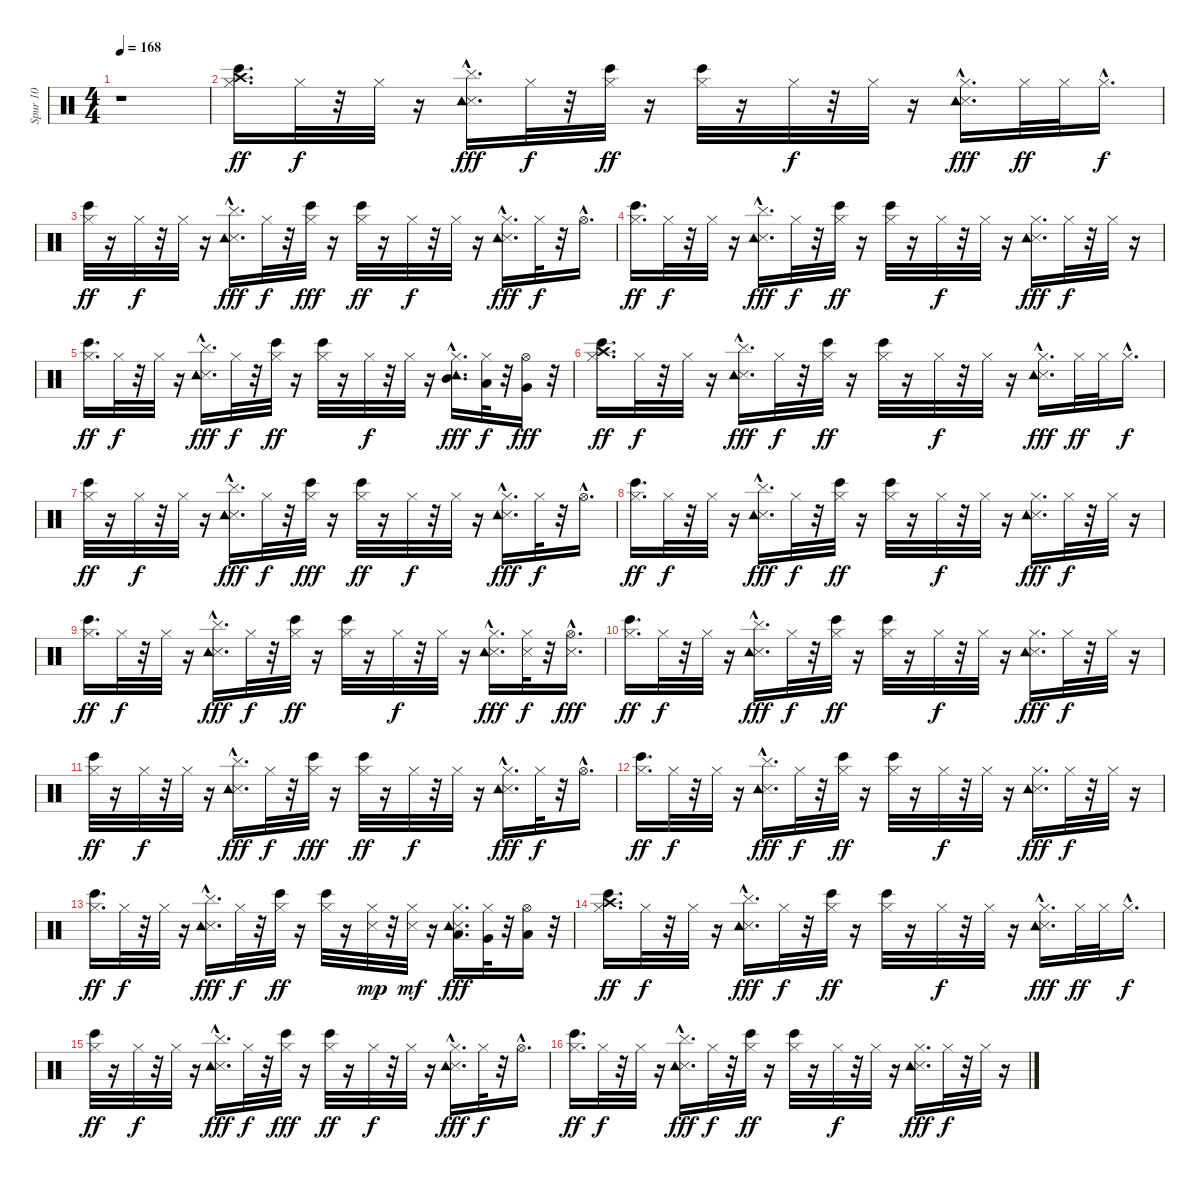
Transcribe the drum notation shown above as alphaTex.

\track ("Spur 10" "Spur 10") {instrument percussion}
\staff {score}
\articulation defaults
\ts (4 4)
\tempo 168
\clef neutral
\ks c
r.1{dy ff} |
("Crash high (hit)" "Hi-Hat (closed)" "Bongo High (hit)").16{d} "Hi-Hat (closed)".32{dy f} r.32 "Hi-Hat (closed)".32 r.16 ("Cymbal (hit)"{hac} "Metronome (hit)" "Tambourine (hit)").16{d dy fff} "Hi-Hat (closed)".32{dy f} r.32 ("Hi-Hat (closed)" "Bongo High (hit)").32{dy ff} r.16 ("Hi-Hat (closed)" "Bongo High (hit)").32 r.16 "Hi-Hat (closed)".32{dy f} r.32 "Hi-Hat (closed)".32 r.16 ("Hi-Hat (closed)"{hac} "Metronome (hit)" "Tambourine (hit)").16{d dy fff} "Hi-Hat (closed)".32{dy ff} "Hi-Hat (closed)".32 "Hi-Hat (closed)"{hac}.16{d dy f} |
("Hi-Hat (closed)" "Bongo High (hit)").32{dy ff} r.16 "Hi-Hat (closed)".32{dy f} r.32 "Hi-Hat (closed)".32 r.16 ("Cymbal (hit)"{hac} "Metronome (hit)" "Tambourine (hit)").16{d dy fff} "Hi-Hat (closed)".32{dy f} r.32 ("Hi-Hat (closed)" "Bongo High (hit)").32{dy fff} r.16 ("Hi-Hat (closed)" "Bongo High (hit)").32{dy ff} r.16 "Hi-Hat (closed)".32{dy f} r.32 "Hi-Hat (closed)".32 r.16 ("Hi-Hat (closed)" "Metronome (hit)"{hac} "Tambourine (hit)").16{d dy fff} "Hi-Hat (closed)".32{dy f} r.32 "Hi-Hat (open)"{hac}.16{d} |
("Hi-Hat (closed)" "Bongo High (hit)").16{d dy ff} "Hi-Hat (closed)".32{dy f} r.32 "Hi-Hat (closed)".32 r.16 ("Cymbal (hit)"{hac} "Metronome (hit)" "Tambourine (hit)").16{d dy fff} "Hi-Hat (closed)".32{dy f} r.32 ("Hi-Hat (closed)" "Bongo High (hit)").32{dy ff} r.16 ("Hi-Hat (closed)" "Bongo High (hit)").32 r.16 "Hi-Hat (closed)".32{dy f} r.32 "Hi-Hat (closed)".32 r.16 ("Hi-Hat (closed)" "Metronome (hit)" "Tambourine (hit)").16{d dy fff} "Hi-Hat (closed)".32{dy f} r.32 "Hi-Hat (closed)".32 r.16 |
("Hi-Hat (closed)" "Bongo High (hit)").16{d dy ff} "Hi-Hat (closed)".32{dy f} r.32 "Hi-Hat (closed)".32 r.16 ("Cymbal (hit)"{hac} "Metronome (hit)" "Tambourine (hit)").16{d dy fff} "Hi-Hat (closed)".32{dy f} r.32 ("Hi-Hat (closed)" "Bongo High (hit)").32{dy ff} r.16 ("Hi-Hat (closed)" "Bongo High (hit)").32 r.16 "Hi-Hat (closed)".32{dy f} r.32 "Hi-Hat (closed)".32 r.16 ("Hi-Hat (closed)" "Mid Tom (hit)"{hac} "Tambourine (hit)").16{d dy fff} ("Low Tom (hit)" "Hi-Hat (closed)").32{dy f} r.32 ("Very Low Tom (hit)" "Hi-Hat (open)").16{dy fff} r.32 |
("Crash high (hit)" "Hi-Hat (closed)" "Bongo High (hit)").16{d dy ff} "Hi-Hat (closed)".32{dy f} r.32 "Hi-Hat (closed)".32 r.16 ("Cymbal (hit)"{hac} "Metronome (hit)" "Tambourine (hit)").16{d dy fff} "Hi-Hat (closed)".32{dy f} r.32 ("Hi-Hat (closed)" "Bongo High (hit)").32{dy ff} r.16 ("Hi-Hat (closed)" "Bongo High (hit)").32 r.16 "Hi-Hat (closed)".32{dy f} r.32 "Hi-Hat (closed)".32 r.16 ("Hi-Hat (closed)"{hac} "Metronome (hit)" "Tambourine (hit)").16{d dy fff} "Hi-Hat (closed)".32{dy ff} "Hi-Hat (closed)".32 "Hi-Hat (closed)"{hac}.16{d dy f} |
("Hi-Hat (closed)" "Bongo High (hit)").32{dy ff} r.16 "Hi-Hat (closed)".32{dy f} r.32 "Hi-Hat (closed)".32 r.16 ("Cymbal (hit)"{hac} "Metronome (hit)" "Tambourine (hit)").16{d dy fff} "Hi-Hat (closed)".32{dy f} r.32 ("Hi-Hat (closed)" "Bongo High (hit)").32{dy fff} r.16 ("Hi-Hat (closed)" "Bongo High (hit)").32{dy ff} r.16 "Hi-Hat (closed)".32{dy f} r.32 "Hi-Hat (closed)".32 r.16 ("Hi-Hat (closed)" "Metronome (hit)"{hac} "Tambourine (hit)").16{d dy fff} "Hi-Hat (closed)".32{dy f} r.32 "Hi-Hat (open)"{hac}.16{d} |
("Hi-Hat (closed)" "Bongo High (hit)").16{d dy ff} "Hi-Hat (closed)".32{dy f} r.32 "Hi-Hat (closed)".32 r.16 ("Cymbal (hit)"{hac} "Metronome (hit)" "Tambourine (hit)").16{d dy fff} "Hi-Hat (closed)".32{dy f} r.32 ("Hi-Hat (closed)" "Bongo High (hit)").32{dy ff} r.16 ("Hi-Hat (closed)" "Bongo High (hit)").32 r.16 "Hi-Hat (closed)".32{dy f} r.32 "Hi-Hat (closed)".32 r.16 ("Hi-Hat (closed)" "Metronome (hit)" "Tambourine (hit)").16{d dy fff} "Hi-Hat (closed)".32{dy f} r.32 "Hi-Hat (closed)".32 r.16 |
("Hi-Hat (closed)" "Bongo High (hit)").16{d dy ff} "Hi-Hat (closed)".32{dy f} r.32 "Hi-Hat (closed)".32 r.16 ("Cymbal (hit)"{hac} "Metronome (hit)" "Tambourine (hit)").16{d dy fff} "Hi-Hat (closed)".32{dy f} r.32 ("Hi-Hat (closed)" "Bongo High (hit)").32{dy ff} r.16 ("Hi-Hat (closed)" "Bongo High (hit)").32 r.16 "Hi-Hat (closed)".32{dy f} r.32 "Hi-Hat (closed)".32 r.16 ("Hi-Hat (closed)" "Metronome (hit)"{hac} "Tambourine (hit)").16{d dy fff} ("Metronome (hit)" "Hi-Hat (closed)").32{dy f} r.32 ("Metronome (hit)"{hac} "Hi-Hat (open)"{hac}).16{d dy fff} |
("Hi-Hat (closed)" "Bongo High (hit)").16{d dy ff} "Hi-Hat (closed)".32{dy f} r.32 "Hi-Hat (closed)".32 r.16 ("Cymbal (hit)"{hac} "Metronome (hit)" "Tambourine (hit)").16{d dy fff} "Hi-Hat (closed)".32{dy f} r.32 ("Hi-Hat (closed)" "Bongo High (hit)").32{dy ff} r.16 ("Hi-Hat (closed)" "Bongo High (hit)").32 r.16 "Hi-Hat (closed)".32{dy f} r.32 "Hi-Hat (closed)".32 r.16 ("Hi-Hat (closed)" "Metronome (hit)" "Tambourine (hit)").16{d dy fff} "Hi-Hat (closed)".32{dy f} r.32 "Hi-Hat (closed)".32 r.16 |
("Hi-Hat (closed)" "Bongo High (hit)").32{dy ff} r.16 "Hi-Hat (closed)".32{dy f} r.32 "Hi-Hat (closed)".32 r.16 ("Cymbal (hit)"{hac} "Metronome (hit)" "Tambourine (hit)").16{d dy fff} "Hi-Hat (closed)".32{dy f} r.32 ("Hi-Hat (closed)" "Bongo High (hit)").32{dy fff} r.16 ("Hi-Hat (closed)" "Bongo High (hit)").32{dy ff} r.16 "Hi-Hat (closed)".32{dy f} r.32 "Hi-Hat (closed)".32 r.16 ("Hi-Hat (closed)" "Metronome (hit)"{hac} "Tambourine (hit)").16{d dy fff} "Hi-Hat (closed)".32{dy f} r.32 "Hi-Hat (open)"{hac}.16{d} |
("Hi-Hat (closed)" "Bongo High (hit)").16{d dy ff} "Hi-Hat (closed)".32{dy f} r.32 "Hi-Hat (closed)".32 r.16 ("Cymbal (hit)"{hac} "Metronome (hit)" "Tambourine (hit)").16{d dy fff} "Hi-Hat (closed)".32{dy f} r.32 ("Hi-Hat (closed)" "Bongo High (hit)").32{dy ff} r.16 ("Hi-Hat (closed)" "Bongo High (hit)").32 r.16 "Hi-Hat (closed)".32{dy f} r.32 "Hi-Hat (closed)".32 r.16 ("Hi-Hat (closed)" "Metronome (hit)" "Tambourine (hit)").16{d dy fff} "Hi-Hat (closed)".32{dy f} r.32 "Hi-Hat (closed)".32 r.16 |
("Hi-Hat (closed)" "Bongo High (hit)").16{d dy ff} "Hi-Hat (closed)".32{dy f} r.32 "Hi-Hat (closed)".32 r.16 ("Cymbal (hit)"{hac} "Metronome (hit)" "Tambourine (hit)").16{d dy fff} "Hi-Hat (closed)".32{dy f} r.32 ("Hi-Hat (closed)" "Bongo High (hit)").32{dy ff} r.16 ("Hi-Hat (closed)" "Bongo High (hit)").32 r.16 ("Metronome (hit)" "Hi-Hat (closed)").32{dy mp} r.32 ("Metronome (hit)" "Hi-Hat (closed)").32{dy mf} r.16 ("Metronome (hit)" "Hi-Hat (closed)" "Low Tom (hit)" "Tambourine (hit)").16{d dy fff} ("Very Low Tom (hit)" "Hi-Hat (closed)").32 r.32 ("Low Floor Tom (hit)" "Hi-Hat (open)").16 r.32 |
("Crash high (hit)" "Hi-Hat (closed)" "Bongo High (hit)").16{d dy ff} "Hi-Hat (closed)".32{dy f} r.32 "Hi-Hat (closed)".32 r.16 ("Cymbal (hit)"{hac} "Metronome (hit)" "Tambourine (hit)").16{d dy fff} "Hi-Hat (closed)".32{dy f} r.32 ("Hi-Hat (closed)" "Bongo High (hit)").32{dy ff} r.16 ("Hi-Hat (closed)" "Bongo High (hit)").32 r.16 "Hi-Hat (closed)".32{dy f} r.32 "Hi-Hat (closed)".32 r.16 ("Hi-Hat (closed)"{hac} "Metronome (hit)" "Tambourine (hit)").16{d dy fff} "Hi-Hat (closed)".32{dy ff} "Hi-Hat (closed)".32 "Hi-Hat (closed)"{hac}.16{d dy f} |
("Hi-Hat (closed)" "Bongo High (hit)").32{dy ff} r.16 "Hi-Hat (closed)".32{dy f} r.32 "Hi-Hat (closed)".32 r.16 ("Cymbal (hit)"{hac} "Metronome (hit)" "Tambourine (hit)").16{d dy fff} "Hi-Hat (closed)".32{dy f} r.32 ("Hi-Hat (closed)" "Bongo High (hit)").32{dy fff} r.16 ("Hi-Hat (closed)" "Bongo High (hit)").32{dy ff} r.16 "Hi-Hat (closed)".32{dy f} r.32 "Hi-Hat (closed)".32 r.16 ("Hi-Hat (closed)" "Metronome (hit)"{hac} "Tambourine (hit)").16{d dy fff} "Hi-Hat (closed)".32{dy f} r.32 "Hi-Hat (open)"{hac}.16{d} |
("Hi-Hat (closed)" "Bongo High (hit)").16{d dy ff} "Hi-Hat (closed)".32{dy f} r.32 "Hi-Hat (closed)".32 r.16 ("Cymbal (hit)"{hac} "Metronome (hit)" "Tambourine (hit)").16{d dy fff} "Hi-Hat (closed)".32{dy f} r.32 ("Hi-Hat (closed)" "Bongo High (hit)").32{dy ff} r.16 ("Hi-Hat (closed)" "Bongo High (hit)").32 r.16 "Hi-Hat (closed)".32{dy f} r.32 "Hi-Hat (closed)".32 r.16 ("Hi-Hat (closed)" "Metronome (hit)" "Tambourine (hit)").16{d dy fff} "Hi-Hat (closed)".32{dy f} r.32 "Hi-Hat (closed)".32 r.16
